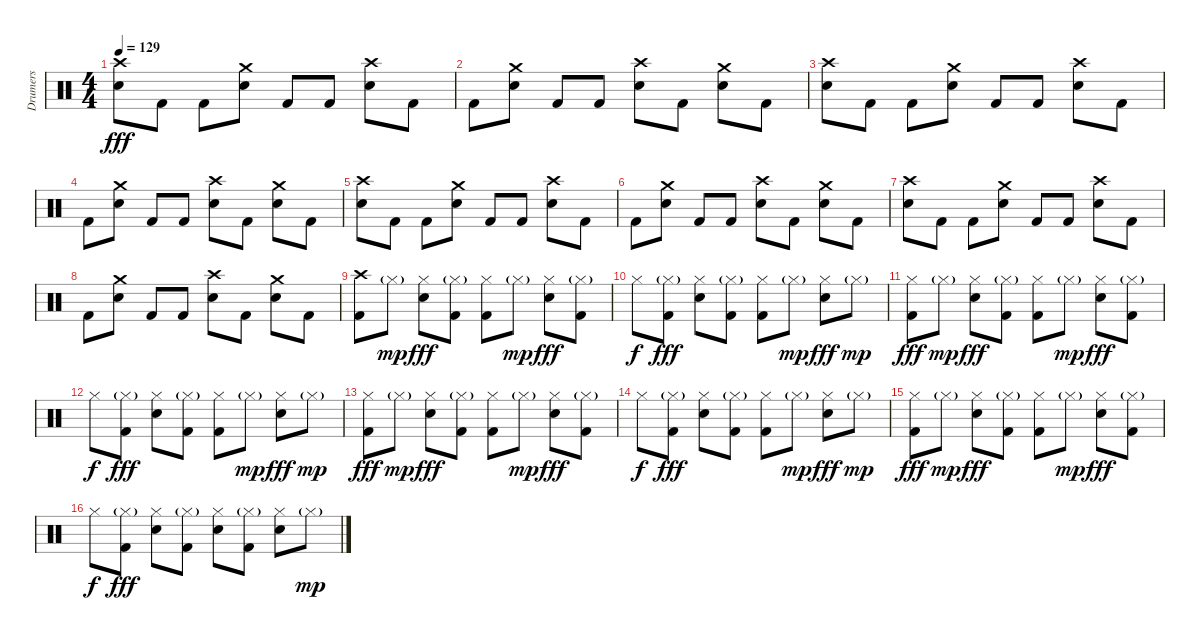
\track ("Drumers" "Drumers") {instrument percussion}
\staff {score}
\articulation defaults
\ts (4 4)
\tempo 129
\clef neutral
\ks c
("Crash high (hit)" "Electric Snare (hit)").8{dy fff} "Kick (hit) 2".8 "Kick (hit) 2".8 ("Crash medium (hit)" "Electric Snare (hit)").8 "Kick (hit) 2".8 "Kick (hit) 2".8 ("Crash high (hit)" "Electric Snare (hit)").8 "Kick (hit) 2".8 |
"Kick (hit) 2".8 ("Crash medium (hit)" "Electric Snare (hit)").8 "Kick (hit) 2".8 "Kick (hit) 2".8 ("Crash high (hit)" "Electric Snare (hit)").8 "Kick (hit) 2".8 ("Crash medium (hit)" "Electric Snare (hit)").8 "Kick (hit) 2".8 |
("Crash high (hit)" "Electric Snare (hit)").8 "Kick (hit) 2".8 "Kick (hit) 2".8 ("Crash medium (hit)" "Electric Snare (hit)").8 "Kick (hit) 2".8 "Kick (hit) 2".8 ("Crash high (hit)" "Electric Snare (hit)").8 "Kick (hit) 2".8 |
"Kick (hit) 2".8 ("Crash medium (hit)" "Electric Snare (hit)").8 "Kick (hit) 2".8 "Kick (hit) 2".8 ("Crash high (hit)" "Electric Snare (hit)").8 "Kick (hit) 2".8 ("Crash medium (hit)" "Electric Snare (hit)").8 "Kick (hit) 2".8 |
("Crash high (hit)" "Electric Snare (hit)").8 "Kick (hit) 2".8 "Kick (hit) 2".8 ("Crash medium (hit)" "Electric Snare (hit)").8 "Kick (hit) 2".8 "Kick (hit) 2".8 ("Crash high (hit)" "Electric Snare (hit)").8 "Kick (hit) 2".8 |
"Kick (hit) 2".8 ("Crash medium (hit)" "Electric Snare (hit)").8 "Kick (hit) 2".8 "Kick (hit) 2".8 ("Crash high (hit)" "Electric Snare (hit)").8 "Kick (hit) 2".8 ("Crash medium (hit)" "Electric Snare (hit)").8 "Kick (hit) 2".8 |
("Crash high (hit)" "Electric Snare (hit)").8 "Kick (hit) 2".8 "Kick (hit) 2".8 ("Crash medium (hit)" "Electric Snare (hit)").8 "Kick (hit) 2".8 "Kick (hit) 2".8 ("Crash high (hit)" "Electric Snare (hit)").8 "Kick (hit) 2".8 |
"Kick (hit) 2".8 ("Crash medium (hit)" "Electric Snare (hit)").8 "Kick (hit) 2".8 "Kick (hit) 2".8 ("Crash high (hit)" "Electric Snare (hit)").8 "Kick (hit) 2".8 ("Crash medium (hit)" "Electric Snare (hit)").8 "Kick (hit) 2".8 |
("Crash high (hit)" "Kick (hit) 2").8 "Hi-Hat (closed)"{g}.8{dy mp} ("Hi-Hat (closed)" "Electric Snare (hit)").8{dy fff} ("Hi-Hat (closed)"{g} "Kick (hit) 2").8 ("Hi-Hat (closed)" "Kick (hit) 2").8 "Hi-Hat (closed)"{g}.8{dy mp} ("Hi-Hat (closed)" "Electric Snare (hit)").8{dy fff} ("Hi-Hat (closed)"{g} "Kick (hit) 2").8 |
"Hi-Hat (closed)".8{dy f} ("Hi-Hat (closed)"{g} "Kick (hit) 2").8{dy fff} ("Hi-Hat (closed)" "Electric Snare (hit)").8 ("Hi-Hat (closed)"{g} "Kick (hit) 2").8 ("Hi-Hat (closed)" "Kick (hit) 2").8 "Hi-Hat (closed)"{g}.8{dy mp} ("Hi-Hat (closed)" "Electric Snare (hit)").8{dy fff} "Hi-Hat (closed)"{g}.8{dy mp} |
("Hi-Hat (closed)" "Kick (hit) 2").8{dy fff} "Hi-Hat (closed)"{g}.8{dy mp} ("Hi-Hat (closed)" "Electric Snare (hit)").8{dy fff} ("Hi-Hat (closed)"{g} "Kick (hit) 2").8 ("Hi-Hat (closed)" "Kick (hit) 2").8 "Hi-Hat (closed)"{g}.8{dy mp} ("Hi-Hat (closed)" "Electric Snare (hit)").8{dy fff} ("Hi-Hat (closed)"{g} "Kick (hit) 2").8 |
"Hi-Hat (closed)".8{dy f} ("Hi-Hat (closed)"{g} "Kick (hit) 2").8{dy fff} ("Hi-Hat (closed)" "Electric Snare (hit)").8 ("Hi-Hat (closed)"{g} "Kick (hit) 2").8 ("Hi-Hat (closed)" "Kick (hit) 2").8 "Hi-Hat (closed)"{g}.8{dy mp} ("Hi-Hat (closed)" "Electric Snare (hit)").8{dy fff} "Hi-Hat (closed)"{g}.8{dy mp} |
("Hi-Hat (closed)" "Kick (hit) 2").8{dy fff} "Hi-Hat (closed)"{g}.8{dy mp} ("Hi-Hat (closed)" "Electric Snare (hit)").8{dy fff} ("Hi-Hat (closed)"{g} "Kick (hit) 2").8 ("Hi-Hat (closed)" "Kick (hit) 2").8 "Hi-Hat (closed)"{g}.8{dy mp} ("Hi-Hat (closed)" "Electric Snare (hit)").8{dy fff} ("Hi-Hat (closed)"{g} "Kick (hit) 2").8 |
"Hi-Hat (closed)".8{dy f} ("Hi-Hat (closed)"{g} "Kick (hit) 2").8{dy fff} ("Hi-Hat (closed)" "Electric Snare (hit)").8 ("Hi-Hat (closed)"{g} "Kick (hit) 2").8 ("Hi-Hat (closed)" "Kick (hit) 2").8 "Hi-Hat (closed)"{g}.8{dy mp} ("Hi-Hat (closed)" "Electric Snare (hit)").8{dy fff} "Hi-Hat (closed)"{g}.8{dy mp} |
("Hi-Hat (closed)" "Kick (hit) 2").8{dy fff} "Hi-Hat (closed)"{g}.8{dy mp} ("Hi-Hat (closed)" "Electric Snare (hit)").8{dy fff} ("Hi-Hat (closed)"{g} "Kick (hit) 2").8 ("Hi-Hat (closed)" "Kick (hit) 2").8 "Hi-Hat (closed)"{g}.8{dy mp} ("Hi-Hat (closed)" "Electric Snare (hit)").8{dy fff} ("Hi-Hat (closed)"{g} "Kick (hit) 2").8 |
"Hi-Hat (closed)".8{dy f} ("Hi-Hat (closed)"{g} "Kick (hit) 2").8{dy fff} ("Hi-Hat (closed)" "Electric Snare (hit)").8 ("Hi-Hat (closed)"{g} "Kick (hit) 2").8 ("Hi-Hat (closed)" "Electric Snare (hit)").8 ("Hi-Hat (closed)"{g} "Kick (hit) 2").8 ("Hi-Hat (closed)" "Electric Snare (hit)").8 "Hi-Hat (closed)"{g}.8{dy mp}
